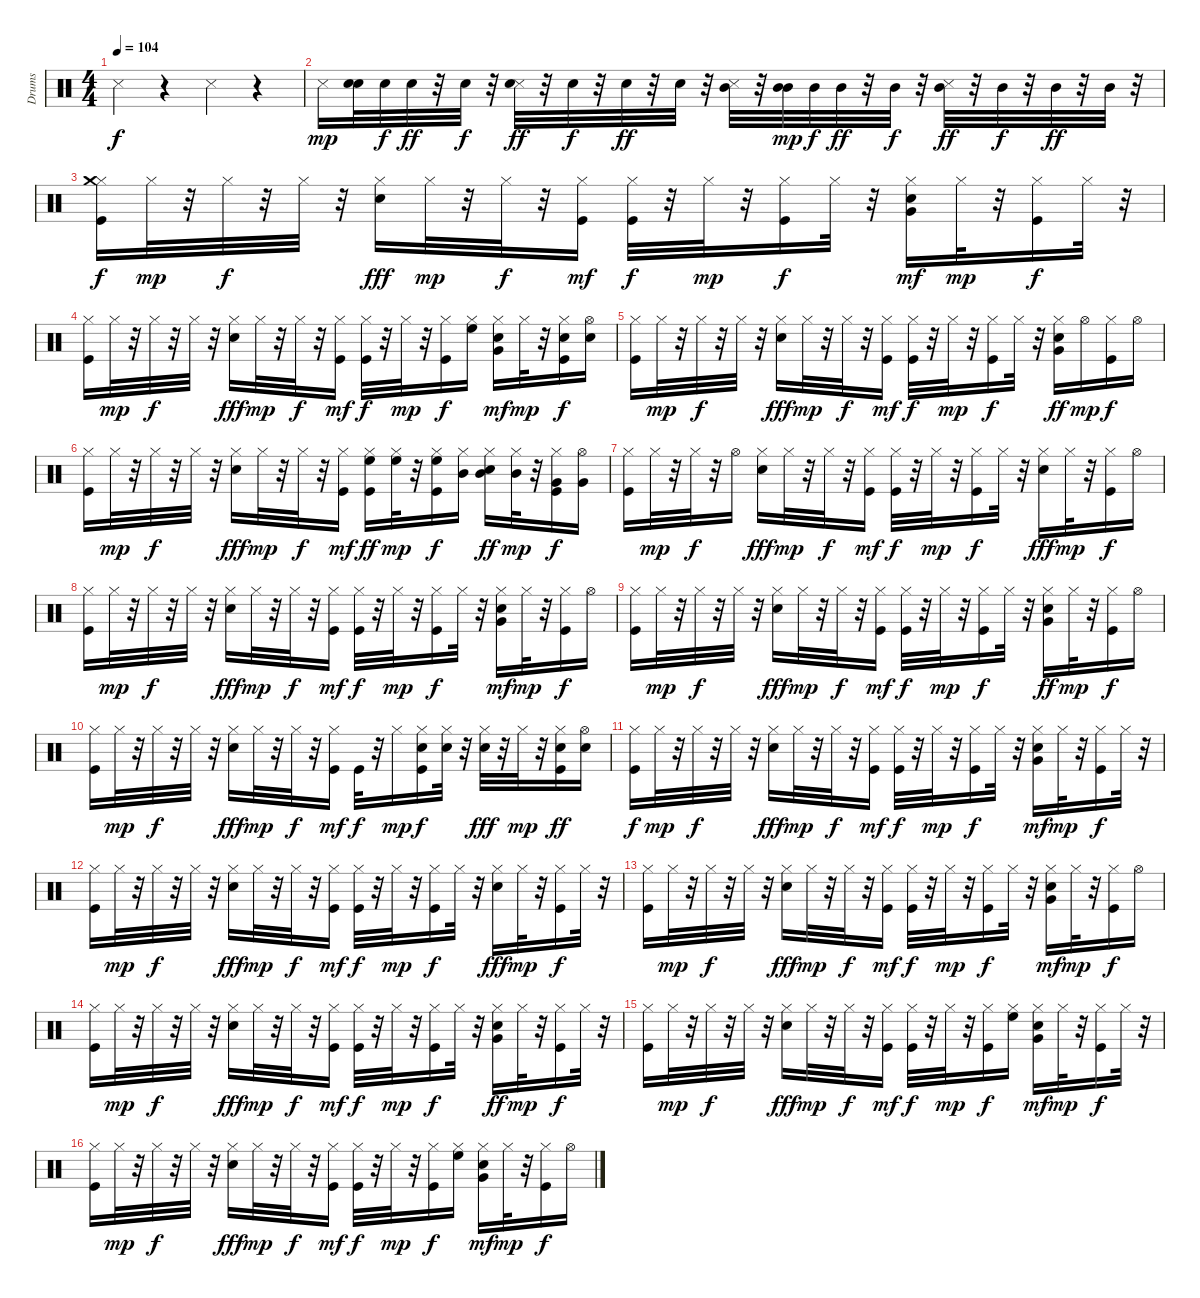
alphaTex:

\track ("Drums   " "Drums   ") {instrument percussion}
\staff {score}
\articulation defaults
\ts (4 4)
\tempo 104
\clef neutral
\ks c "Metronome (hit)".4{dy f}
r.4 "Metronome (hit)".4 r.4 |
"Metronome (hit)".16{dy mp} ("Electric Snare (hit)" "Electric Snare (hit)").32 "Electric Snare (hit)".32{dy f} "Electric Snare (hit)".32{dy ff} r.32 "Electric Snare (hit)".32{dy f} r.32 ("Metronome (hit)" "Electric Snare (hit)").32{dy ff} r.32 "Electric Snare (hit)".32{dy f} r.32 "Electric Snare (hit)".32{dy ff} r.32 "Electric Snare (hit)".32 r.32 ("Metronome (hit)" "Mid Tom (hit)").32 r.32 ("Mid Tom (hit)" "Mid Tom (hit)").32{dy mp} "Mid Tom (hit)".32{dy f} "Mid Tom (hit)".32{dy ff} r.32 "Mid Tom (hit)".32{dy f} r.32 ("Metronome (hit)" "Mid Tom (hit)").32{dy ff} r.32 "Mid Tom (hit)".32{dy f} r.32 "Mid Tom (hit)".32{dy ff} r.32 "Mid Tom (hit)".32 r.32 |
("Kick (hit)" "Hi-Hat (closed)" "Crash medium (hit)").16{dy f} "Hi-Hat (closed)".32{dy mp} r.32 "Hi-Hat (closed)".32{dy f} r.32 "Hi-Hat (closed)".32 r.32 ("Electric Snare (hit)" "Hi-Hat (closed)").16{dy fff} "Hi-Hat (closed)".32{dy mp} r.32 "Hi-Hat (closed)".32{dy f} r.32 ("Kick (hit)" "Hi-Hat (closed)").16{dy mf} ("Kick (hit)" "Hi-Hat (closed)").32{dy f} r.32 "Hi-Hat (closed)".32{dy mp} r.32 ("Kick (hit)" "Hi-Hat (closed)").16{dy f} "Hi-Hat (closed)".32 r.32 ("Electric Snare (hit)" "Hi-Hat (closed)" "Very Low Tom (hit)").16{dy mf} "Hi-Hat (closed)".32{dy mp} r.32 ("Kick (hit)" "Hi-Hat (closed)").16{dy f} "Hi-Hat (closed)".32 r.32 |
("Kick (hit)" "Hi-Hat (closed)").16 "Hi-Hat (closed)".32{dy mp} r.32 "Hi-Hat (closed)".32{dy f} r.32 "Hi-Hat (closed)".32 r.32 ("Electric Snare (hit)" "Hi-Hat (closed)").16{dy fff} "Hi-Hat (closed)".32{dy mp} r.32 "Hi-Hat (closed)".32{dy f} r.32 ("Kick (hit)" "Hi-Hat (closed)").16{dy mf} ("Kick (hit)" "Hi-Hat (closed)").32{dy f} r.32 "Hi-Hat (closed)".32{dy mp} r.32 ("Kick (hit)" "Hi-Hat (closed)").16{dy f} ("Hi-Hat (closed)" "High Floor Tom (hit)").16 ("Electric Snare (hit)" "Hi-Hat (closed)" "Very Low Tom (hit)").16{dy mf} "Hi-Hat (closed)".32{dy mp} r.32 ("Kick (hit)" "Electric Snare (hit)" "Hi-Hat (closed)").16{dy f} ("Electric Snare (hit)" "Hi-Hat (open)").16 |
("Kick (hit)" "Hi-Hat (closed)").16 "Hi-Hat (closed)".32{dy mp} r.32 "Hi-Hat (closed)".32{dy f} r.32 "Hi-Hat (closed)".32 r.32 ("Electric Snare (hit)" "Hi-Hat (closed)").16{dy fff} "Hi-Hat (closed)".32{dy mp} r.32 "Hi-Hat (closed)".32{dy f} r.32 ("Kick (hit)" "Hi-Hat (closed)").16{dy mf} ("Kick (hit)" "Hi-Hat (closed)").32{dy f} r.32 "Hi-Hat (closed)".32{dy mp} r.32 ("Kick (hit)" "Hi-Hat (closed)").16{dy f} "Hi-Hat (closed)".32 r.32 ("Electric Snare (hit)" "Hi-Hat (closed)" "Very Low Tom (hit)").16{dy ff} "Hi-Hat (open)".16{dy mp} ("Kick (hit)" "Hi-Hat (closed)").16{dy f} "Hi-Hat (open)".16 |
("Kick (hit)" "Hi-Hat (closed)").16 "Hi-Hat (closed)".32{dy mp} r.32 "Hi-Hat (closed)".32{dy f} r.32 "Hi-Hat (closed)".32 r.32 ("Electric Snare (hit)" "Hi-Hat (closed)").16{dy fff} "Hi-Hat (closed)".32{dy mp} r.32 "Hi-Hat (closed)".32{dy f} r.32 ("Kick (hit)" "Hi-Hat (closed)").16{dy mf} ("Kick (hit)" "Hi-Hat (closed)" "High Floor Tom (hit)").16{dy ff} ("Hi-Hat (closed)" "High Floor Tom (hit)").32{dy mp} r.32 ("Kick (hit)" "Hi-Hat (closed)" "High Floor Tom (hit)").16{dy f} ("Hi-Hat (closed)" "Mid Tom (hit)").16 ("Electric Snare (hit)" "Hi-Hat (closed)" "Mid Tom (hit)").16{dy ff} ("Hi-Hat (closed)" "Mid Tom (hit)").32{dy mp} r.32 ("Kick (hit)" "Hi-Hat (closed)" "Very Low Tom (hit)").16{dy f} ("Very Low Tom (hit)" "Hi-Hat (open)").16 |
("Kick (hit)" "Hi-Hat (closed)").16 "Hi-Hat (closed)".32{dy mp} r.32 "Hi-Hat (closed)".32{dy f} r.32 "Hi-Hat (open)".16 ("Electric Snare (hit)" "Hi-Hat (closed)").16{dy fff} "Hi-Hat (closed)".32{dy mp} r.32 "Hi-Hat (closed)".32{dy f} r.32 ("Kick (hit)" "Hi-Hat (closed)").16{dy mf} ("Kick (hit)" "Hi-Hat (closed)").32{dy f} r.32 "Hi-Hat (closed)".32{dy mp} r.32 ("Kick (hit)" "Hi-Hat (closed)").16{dy f} "Hi-Hat (closed)".32 r.32 ("Electric Snare (hit)" "Hi-Hat (closed)").16{dy fff} "Hi-Hat (closed)".32{dy mp} r.32 ("Kick (hit)" "Hi-Hat (closed)").16{dy f} "Hi-Hat (open)".16 |
("Kick (hit)" "Hi-Hat (closed)").16 "Hi-Hat (closed)".32{dy mp} r.32 "Hi-Hat (closed)".32{dy f} r.32 "Hi-Hat (closed)".32 r.32 ("Electric Snare (hit)" "Hi-Hat (closed)").16{dy fff} "Hi-Hat (closed)".32{dy mp} r.32 "Hi-Hat (closed)".32{dy f} r.32 ("Kick (hit)" "Hi-Hat (closed)").16{dy mf} ("Kick (hit)" "Hi-Hat (closed)").32{dy f} r.32 "Hi-Hat (closed)".32{dy mp} r.32 ("Kick (hit)" "Hi-Hat (closed)").16{dy f} "Hi-Hat (closed)".32 r.32 ("Electric Snare (hit)" "Hi-Hat (closed)" "Very Low Tom (hit)").16{dy mf} "Hi-Hat (closed)".32{dy mp} r.32 ("Kick (hit)" "Hi-Hat (closed)").16{dy f} "Hi-Hat (open)".16 |
("Kick (hit)" "Hi-Hat (closed)").16 "Hi-Hat (closed)".32{dy mp} r.32 "Hi-Hat (closed)".32{dy f} r.32 "Hi-Hat (closed)".32 r.32 ("Electric Snare (hit)" "Hi-Hat (closed)").16{dy fff} "Hi-Hat (closed)".32{dy mp} r.32 "Hi-Hat (closed)".32{dy f} r.32 ("Kick (hit)" "Hi-Hat (closed)").16{dy mf} ("Kick (hit)" "Hi-Hat (closed)").32{dy f} r.32 "Hi-Hat (closed)".32{dy mp} r.32 ("Kick (hit)" "Hi-Hat (closed)").16{dy f} "Hi-Hat (closed)".32 r.32 ("Electric Snare (hit)" "Hi-Hat (closed)" "Very Low Tom (hit)").16{dy ff} "Hi-Hat (closed)".32{dy mp} r.32 ("Kick (hit)" "Hi-Hat (closed)").16{dy f} "Hi-Hat (open)".16 |
("Kick (hit)" "Hi-Hat (closed)").16 "Hi-Hat (closed)".32{dy mp} r.32 "Hi-Hat (closed)".32{dy f} r.32 "Hi-Hat (closed)".32 r.32 ("Electric Snare (hit)" "Hi-Hat (closed)").16{dy fff} "Hi-Hat (closed)".32{dy mp} r.32 "Hi-Hat (closed)".32{dy f} r.32 ("Kick (hit)" "Hi-Hat (closed)").16{dy mf} "Kick (hit)".32{dy f} r.32 "Hi-Hat (closed)".16{dy mp} ("Kick (hit)" "Electric Snare (hit)" "Hi-Hat (closed)").16{dy f} ("Electric Snare (hit)" "Hi-Hat (closed)").32 r.32 ("Electric Snare (hit)" "Hi-Hat (closed)").32{dy fff} r.32 "Hi-Hat (closed)".32{dy mp} r.32 ("Kick (hit)" "Electric Snare (hit)" "Hi-Hat (closed)").16{dy ff} ("Electric Snare (hit)" "Hi-Hat (open)").16 |
("Kick (hit)" "Hi-Hat (closed)").16{dy f} "Hi-Hat (closed)".32{dy mp} r.32 "Hi-Hat (closed)".32{dy f} r.32 "Hi-Hat (closed)".32 r.32 ("Electric Snare (hit)" "Hi-Hat (closed)").16{dy fff} "Hi-Hat (closed)".32{dy mp} r.32 "Hi-Hat (closed)".32{dy f} r.32 ("Kick (hit)" "Hi-Hat (closed)").16{dy mf} ("Kick (hit)" "Hi-Hat (closed)").32{dy f} r.32 "Hi-Hat (closed)".32{dy mp} r.32 ("Kick (hit)" "Hi-Hat (closed)").16{dy f} "Hi-Hat (closed)".32 r.32 ("Electric Snare (hit)" "Hi-Hat (closed)" "Very Low Tom (hit)").16{dy mf} "Hi-Hat (closed)".32{dy mp} r.32 ("Kick (hit)" "Hi-Hat (closed)").16{dy f} "Hi-Hat (closed)".32 r.32 |
("Kick (hit)" "Hi-Hat (closed)").16 "Hi-Hat (closed)".32{dy mp} r.32 "Hi-Hat (closed)".32{dy f} r.32 "Hi-Hat (closed)".32 r.32 ("Electric Snare (hit)" "Hi-Hat (closed)").16{dy fff} "Hi-Hat (closed)".32{dy mp} r.32 "Hi-Hat (closed)".32{dy f} r.32 ("Kick (hit)" "Hi-Hat (closed)").16{dy mf} ("Kick (hit)" "Hi-Hat (closed)").32{dy f} r.32 "Hi-Hat (closed)".32{dy mp} r.32 ("Kick (hit)" "Hi-Hat (closed)").16{dy f} "Hi-Hat (closed)".32 r.32 ("Electric Snare (hit)" "Hi-Hat (closed)").16{dy fff} "Hi-Hat (closed)".32{dy mp} r.32 ("Kick (hit)" "Hi-Hat (closed)").16{dy f} "Hi-Hat (closed)".32 r.32 |
("Kick (hit)" "Hi-Hat (closed)").16 "Hi-Hat (closed)".32{dy mp} r.32 "Hi-Hat (closed)".32{dy f} r.32 "Hi-Hat (closed)".32 r.32 ("Electric Snare (hit)" "Hi-Hat (closed)").16{dy fff} "Hi-Hat (closed)".32{dy mp} r.32 "Hi-Hat (closed)".32{dy f} r.32 ("Kick (hit)" "Hi-Hat (closed)").16{dy mf} ("Kick (hit)" "Hi-Hat (closed)").32{dy f} r.32 "Hi-Hat (closed)".32{dy mp} r.32 ("Kick (hit)" "Hi-Hat (closed)").16{dy f} "Hi-Hat (closed)".32 r.32 ("Electric Snare (hit)" "Hi-Hat (closed)" "Very Low Tom (hit)").16{dy mf} "Hi-Hat (closed)".32{dy mp} r.32 ("Kick (hit)" "Hi-Hat (closed)").16{dy f} "Hi-Hat (open)".16 |
("Kick (hit)" "Hi-Hat (closed)").16 "Hi-Hat (closed)".32{dy mp} r.32 "Hi-Hat (closed)".32{dy f} r.32 "Hi-Hat (closed)".32 r.32 ("Electric Snare (hit)" "Hi-Hat (closed)").16{dy fff} "Hi-Hat (closed)".32{dy mp} r.32 "Hi-Hat (closed)".32{dy f} r.32 ("Kick (hit)" "Hi-Hat (closed)").16{dy mf} ("Kick (hit)" "Hi-Hat (closed)").32{dy f} r.32 "Hi-Hat (closed)".32{dy mp} r.32 ("Kick (hit)" "Hi-Hat (closed)").16{dy f} "Hi-Hat (closed)".32 r.32 ("Electric Snare (hit)" "Hi-Hat (closed)" "Very Low Tom (hit)").16{dy ff} "Hi-Hat (closed)".32{dy mp} r.32 ("Kick (hit)" "Hi-Hat (closed)").16{dy f} "Hi-Hat (closed)".32 r.32 |
("Kick (hit)" "Hi-Hat (closed)").16 "Hi-Hat (closed)".32{dy mp} r.32 "Hi-Hat (closed)".32{dy f} r.32 "Hi-Hat (closed)".32 r.32 ("Electric Snare (hit)" "Hi-Hat (closed)").16{dy fff} "Hi-Hat (closed)".32{dy mp} r.32 "Hi-Hat (closed)".32{dy f} r.32 ("Kick (hit)" "Hi-Hat (closed)").16{dy mf} ("Kick (hit)" "Hi-Hat (closed)").32{dy f} r.32 "Hi-Hat (closed)".32{dy mp} r.32 ("Kick (hit)" "Hi-Hat (closed)").16{dy f} ("Hi-Hat (closed)" "High Floor Tom (hit)").16 ("Electric Snare (hit)" "Hi-Hat (closed)" "Very Low Tom (hit)").16{dy mf} "Hi-Hat (closed)".32{dy mp} r.32 ("Kick (hit)" "Hi-Hat (closed)").16{dy f} "Hi-Hat (closed)".32 r.32 |
("Kick (hit)" "Hi-Hat (closed)").16 "Hi-Hat (closed)".32{dy mp} r.32 "Hi-Hat (closed)".32{dy f} r.32 "Hi-Hat (closed)".32 r.32 ("Electric Snare (hit)" "Hi-Hat (closed)").16{dy fff} "Hi-Hat (closed)".32{dy mp} r.32 "Hi-Hat (closed)".32{dy f} r.32 ("Kick (hit)" "Hi-Hat (closed)").16{dy mf} ("Kick (hit)" "Hi-Hat (closed)").32{dy f} r.32 "Hi-Hat (closed)".32{dy mp} r.32 ("Kick (hit)" "Hi-Hat (closed)").16{dy f} ("Hi-Hat (closed)" "High Floor Tom (hit)").16 ("Electric Snare (hit)" "Hi-Hat (closed)" "Very Low Tom (hit)").16{dy mf} "Hi-Hat (closed)".32{dy mp} r.32 ("Kick (hit)" "Hi-Hat (closed)").16{dy f} "Hi-Hat (open)".16
